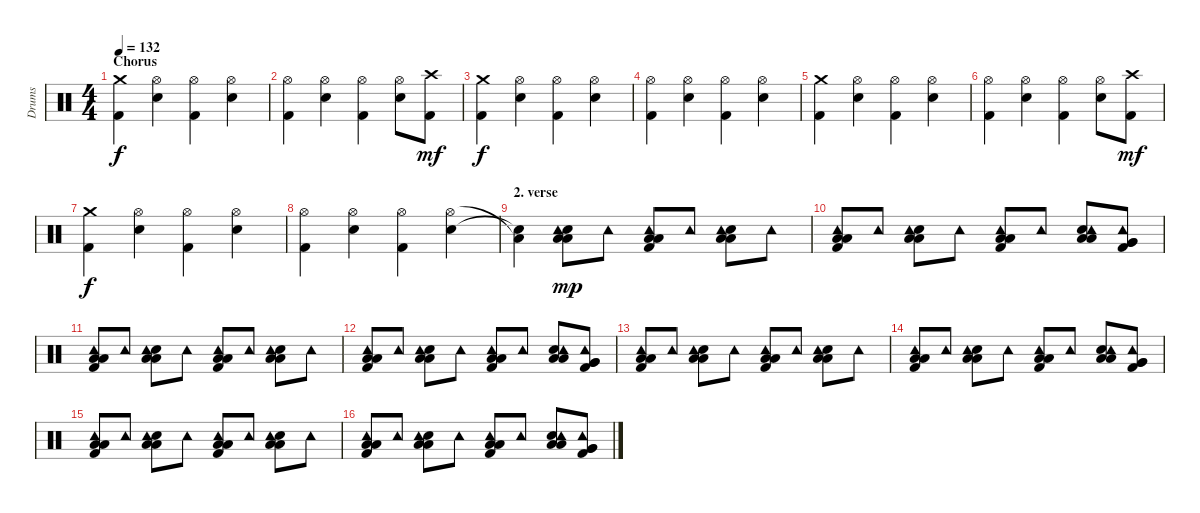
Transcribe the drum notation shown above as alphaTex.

\track ("Drums" "Drums") {instrument percussion}
\staff {score}
\articulation defaults
\ts (4 4)
\section ("" "Chorus")
\tempo 132
\clef neutral
\ks c
("Kick (hit) 2" "Crash medium (hit)").4{dy f} ("Hi-Hat (open)" "Snare (hit) 2").4 ("Kick (hit) 2" "Hi-Hat (open)").4 ("Hi-Hat (open)" "Snare (hit) 2").4 |
("Kick (hit) 2" "Hi-Hat (open)").4 ("Hi-Hat (open)" "Snare (hit) 2").4 ("Kick (hit) 2" "Hi-Hat (open)").4 ("Hi-Hat (open)" "Snare (hit) 2").8 ("Kick (hit) 2" "Crash high (hit)").8{dy mf} |
("Kick (hit) 2" "Crash medium (hit)").4{dy f} ("Hi-Hat (open)" "Snare (hit) 2").4 ("Kick (hit) 2" "Hi-Hat (open)").4 ("Hi-Hat (open)" "Snare (hit) 2").4 |
("Kick (hit) 2" "Hi-Hat (open)").4 ("Hi-Hat (open)" "Snare (hit) 2").4 ("Kick (hit) 2" "Hi-Hat (open)").4 ("Hi-Hat (open)" "Snare (hit) 2").4 |
("Kick (hit) 2" "Crash medium (hit)").4 ("Hi-Hat (open)" "Snare (hit) 2").4 ("Kick (hit) 2" "Hi-Hat (open)").4 ("Hi-Hat (open)" "Snare (hit) 2").4 |
("Kick (hit) 2" "Hi-Hat (open)").4 ("Hi-Hat (open)" "Snare (hit) 2").4 ("Kick (hit) 2" "Hi-Hat (open)").4 ("Hi-Hat (open)" "Snare (hit) 2").8 ("Kick (hit) 2" "Crash high (hit)").8{dy mf} |
("Kick (hit) 2" "Crash medium (hit)").4{dy f} ("Hi-Hat (open)" "Snare (hit) 2").4 ("Kick (hit) 2" "Hi-Hat (open)").4 ("Hi-Hat (open)" "Snare (hit) 2").4 |
("Kick (hit) 2" "Hi-Hat (open)").4 ("Hi-Hat (open)" "Snare (hit) 2").4 ("Kick (hit) 2" "Hi-Hat (open)").4 ("Hi-Hat (open)" "Snare (hit) 2").4 |
\section ("" "2. verse")
("Low Floor Tom (hit)"{t} "Snare (hit)"{t}).4 ("Low Floor Tom (hit)" "Low Floor Tom (hit)" "Snare (hit) 2" "Tambourine (hit)").8{dy mp volume 16} "Tambourine (hit)".8 ("Kick (hit) 2" "Low Floor Tom (hit)" "Low Floor Tom (hit)" "Tambourine (hit)").8 "Tambourine (hit)".8 ("Low Floor Tom (hit)" "Low Floor Tom (hit)" "Snare (hit) 2" "Tambourine (hit)").8 "Tambourine (hit)".8 |
("Kick (hit) 2" "Low Floor Tom (hit)" "Low Floor Tom (hit)" "Tambourine (hit)").8 "Tambourine (hit)".8 ("Low Floor Tom (hit)" "Low Floor Tom (hit)" "Snare (hit) 2" "Tambourine (hit)").8 "Tambourine (hit)".8 ("Kick (hit) 2" "Low Floor Tom (hit)" "Low Floor Tom (hit)" "Tambourine (hit)").8 "Tambourine (hit)".8 ("Low Floor Tom (hit)" "Low Floor Tom (hit)" "Snare (hit) 2" "Tambourine (hit)").8 ("Kick (hit) 2" "Very Low Tom (hit)" "Very Low Tom (hit)" "Tambourine (hit)").8 |
("Kick (hit) 2" "Low Floor Tom (hit)" "Low Floor Tom (hit)" "Tambourine (hit)").8 "Tambourine (hit)".8 ("Low Floor Tom (hit)" "Low Floor Tom (hit)" "Snare (hit) 2" "Tambourine (hit)").8 "Tambourine (hit)".8 ("Kick (hit) 2" "Low Floor Tom (hit)" "Low Floor Tom (hit)" "Tambourine (hit)").8 "Tambourine (hit)".8 ("Low Floor Tom (hit)" "Low Floor Tom (hit)" "Snare (hit) 2" "Tambourine (hit)").8 "Tambourine (hit)".8 |
("Kick (hit) 2" "Low Floor Tom (hit)" "Low Floor Tom (hit)" "Tambourine (hit)").8 "Tambourine (hit)".8 ("Low Floor Tom (hit)" "Low Floor Tom (hit)" "Snare (hit) 2" "Tambourine (hit)").8 "Tambourine (hit)".8 ("Kick (hit) 2" "Low Floor Tom (hit)" "Low Floor Tom (hit)" "Tambourine (hit)").8 "Tambourine (hit)".8 ("Low Floor Tom (hit)" "Low Floor Tom (hit)" "Snare (hit) 2" "Tambourine (hit)").8 ("Kick (hit) 2" "Very Low Tom (hit)" "Very Low Tom (hit)" "Tambourine (hit)").8 |
("Kick (hit) 2" "Low Floor Tom (hit)" "Low Floor Tom (hit)" "Tambourine (hit)").8 "Tambourine (hit)".8 ("Low Floor Tom (hit)" "Low Floor Tom (hit)" "Snare (hit) 2" "Tambourine (hit)").8 "Tambourine (hit)".8 ("Kick (hit) 2" "Low Floor Tom (hit)" "Low Floor Tom (hit)" "Tambourine (hit)").8 "Tambourine (hit)".8 ("Low Floor Tom (hit)" "Low Floor Tom (hit)" "Snare (hit) 2" "Tambourine (hit)").8 "Tambourine (hit)".8 |
("Kick (hit) 2" "Low Floor Tom (hit)" "Low Floor Tom (hit)" "Tambourine (hit)").8 "Tambourine (hit)".8 ("Low Floor Tom (hit)" "Low Floor Tom (hit)" "Snare (hit) 2" "Tambourine (hit)").8 "Tambourine (hit)".8 ("Kick (hit) 2" "Low Floor Tom (hit)" "Low Floor Tom (hit)" "Tambourine (hit)").8 "Tambourine (hit)".8 ("Low Floor Tom (hit)" "Low Floor Tom (hit)" "Snare (hit) 2" "Tambourine (hit)").8 ("Kick (hit) 2" "Very Low Tom (hit)" "Very Low Tom (hit)" "Tambourine (hit)").8 |
("Kick (hit) 2" "Low Floor Tom (hit)" "Low Floor Tom (hit)" "Tambourine (hit)").8 "Tambourine (hit)".8 ("Low Floor Tom (hit)" "Low Floor Tom (hit)" "Snare (hit) 2" "Tambourine (hit)").8 "Tambourine (hit)".8 ("Kick (hit) 2" "Low Floor Tom (hit)" "Low Floor Tom (hit)" "Tambourine (hit)").8 "Tambourine (hit)".8 ("Low Floor Tom (hit)" "Low Floor Tom (hit)" "Snare (hit) 2" "Tambourine (hit)").8 "Tambourine (hit)".8 |
("Kick (hit) 2" "Low Floor Tom (hit)" "Low Floor Tom (hit)" "Tambourine (hit)").8 "Tambourine (hit)".8 ("Low Floor Tom (hit)" "Low Floor Tom (hit)" "Snare (hit) 2" "Tambourine (hit)").8 "Tambourine (hit)".8 ("Kick (hit) 2" "Low Floor Tom (hit)" "Low Floor Tom (hit)" "Tambourine (hit)").8 "Tambourine (hit)".8 ("Low Floor Tom (hit)" "Low Floor Tom (hit)" "Snare (hit) 2" "Tambourine (hit)").8 ("Kick (hit) 2" "Very Low Tom (hit)" "Very Low Tom (hit)" "Tambourine (hit)").8
